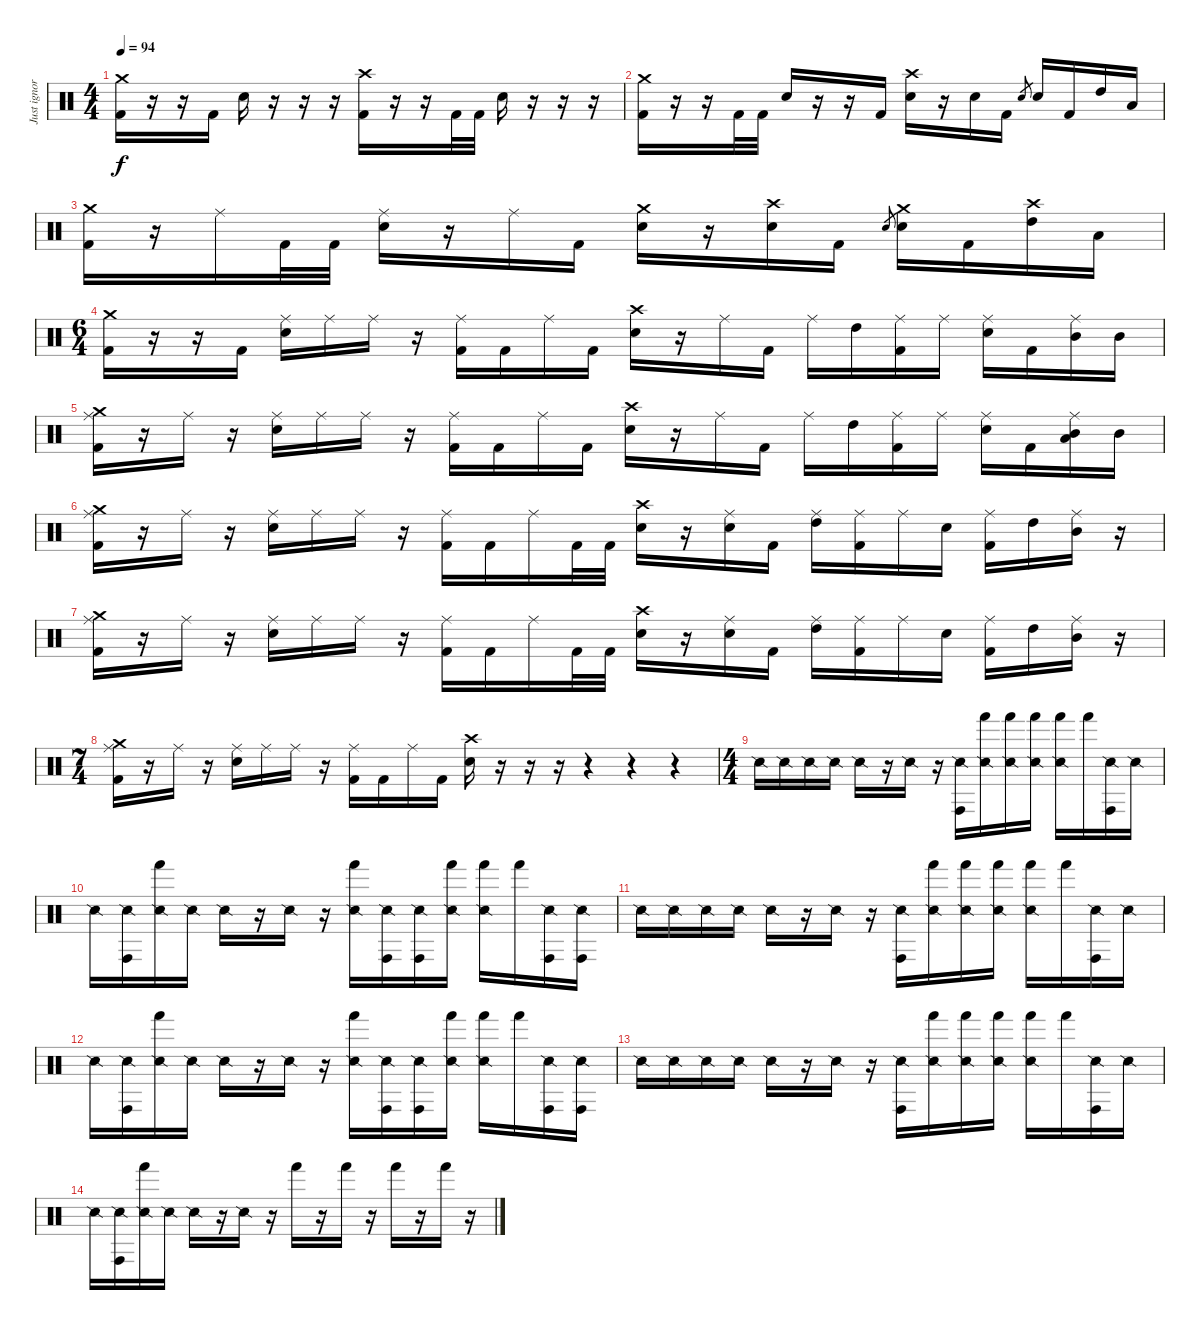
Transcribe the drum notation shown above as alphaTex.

\track ("Just ignore this track" "Just ignor") {instrument percussion}
\staff {score}
\articulation defaults
\ts (4 4)
\tempo 94
\clef neutral
\ks c
("Crash medium (hit)" "Kick (hit) 2").16{dy f} r.16 r.16 "Kick (hit) 2".16 "Electric Snare (hit)".16 r.16 r.16 r.16 ("Crash high (hit)" "Kick (hit) 2").16 r.16 r.16 "Kick (hit) 2".32 "Kick (hit) 2".32 "Electric Snare (hit)".16 r.16 r.16 r.16 |
("Crash medium (hit)" "Kick (hit) 2").16 r.16 r.16 "Kick (hit) 2".32 "Kick (hit) 2".32 "Electric Snare (hit)".16 r.16 r.16 "Kick (hit) 2".16 ("Crash high (hit)" "Electric Snare (hit)").16 r.16 "Electric Snare (hit)".16 "Kick (hit) 2".16 "Electric Snare (hit)".8{gr} "Electric Snare (hit)".16 "Kick (hit) 2".16 "High Tom (hit)".16 "Low Tom (hit)".16 |
("Crash medium (hit)" "Kick (hit) 2").16 r.16 "Ride (middle)".16 "Kick (hit) 2".32 "Kick (hit) 2".32 ("Ride (middle)" "Electric Snare (hit)").16 r.16 "Ride (middle)".16 "Kick (hit) 2".16 ("Crash medium (hit)" "Electric Snare (hit)").16 r.16 ("Crash high (hit)" "Electric Snare (hit)").16 "Kick (hit) 2".16 "Electric Snare (hit)".8{gr} ("Crash medium (hit)" "Electric Snare (hit)").16 "Kick (hit) 2".16 ("Crash high (hit)" "High Tom (hit)").16 "Low Tom (hit)".16 |
\ts (6 4)
("Crash medium (hit)" "Kick (hit) 2").16 r.16 r.16 "Kick (hit) 2".16 ("Ride (middle)" "Electric Snare (hit)").16 "Ride (middle)".16 "Ride (middle)".16 r.16 ("Ride (middle)" "Kick (hit) 2").16 "Kick (hit) 2".16 "Ride (middle)".16 "Kick (hit) 2".16 ("Crash high (hit)" "Electric Snare (hit)").16 r.16 "Ride (middle)".16 "Kick (hit) 2".16 "Ride (middle)".16 "High Tom (hit)".16 ("Ride (middle)" "Kick (hit) 2").16 "Ride (middle)".16 ("Ride (middle)" "Electric Snare (hit)").16 "Kick (hit) 2".16 ("Ride (middle)" "Mid Tom (hit)").16 "Mid Tom (hit)".16 |
("Crash medium (hit)" "Ride (middle)" "Kick (hit) 2").16 r.16 "Ride (middle)".16 r.16 ("Ride (middle)" "Electric Snare (hit)").16 "Ride (middle)".16 "Ride (middle)".16 r.16 ("Ride (middle)" "Kick (hit) 2").16 "Kick (hit) 2".16 "Ride (middle)".16 "Kick (hit) 2".16 ("Crash high (hit)" "Electric Snare (hit)").16 r.16 "Ride (middle)".16 "Kick (hit) 2".16 "Ride (middle)".16 "High Tom (hit)".16 ("Ride (middle)" "Kick (hit) 2").16 "Ride (middle)".16 ("Ride (middle)" "Electric Snare (hit)").16 "Kick (hit) 2".16 ("Ride (middle)" "Low Floor Tom (hit)" "Mid Tom (hit)").16 "Mid Tom (hit)".16 |
("Crash medium (hit)" "Ride (middle)" "Kick (hit) 2").16 r.16 "Ride (middle)".16 r.16 ("Ride (middle)" "Electric Snare (hit)").16 "Ride (middle)".16 "Ride (middle)".16 r.16 ("Ride (middle)" "Kick (hit) 2").16 "Kick (hit) 2".16 "Ride (middle)".16 "Kick (hit) 2".32 "Kick (hit) 2".32 ("Crash high (hit)" "Electric Snare (hit)").16 r.16 ("Ride (middle)" "Electric Snare (hit)").16 "Kick (hit) 2".16 ("Ride (middle)" "High Tom (hit)").16 ("Ride (middle)" "Kick (hit) 2").16 "Ride (middle)".16 "Electric Snare (hit)".16 ("Ride (middle)" "Kick (hit) 2").16 "High Tom (hit)".16 ("Ride (middle)" "Mid Tom (hit)").16 r.16 |
("Crash medium (hit)" "Ride (middle)" "Kick (hit) 2").16 r.16 "Ride (middle)".16 r.16 ("Ride (middle)" "Electric Snare (hit)").16 "Ride (middle)".16 "Ride (middle)".16 r.16 ("Ride (middle)" "Kick (hit) 2").16 "Kick (hit) 2".16 "Ride (middle)".16 "Kick (hit) 2".32 "Kick (hit) 2".32 ("Crash high (hit)" "Electric Snare (hit)").16 r.16 ("Ride (middle)" "Electric Snare (hit)").16 "Kick (hit) 2".16 ("Ride (middle)" "High Tom (hit)").16 ("Ride (middle)" "Kick (hit) 2").16 "Ride (middle)".16 "Electric Snare (hit)".16 ("Ride (middle)" "Kick (hit) 2").16 "High Tom (hit)".16 ("Ride (middle)" "Mid Tom (hit)").16 r.16 |
\ts (7 4)
("Crash medium (hit)" "Ride (middle)" "Kick (hit) 2").16 r.16 "Ride (middle)".16 r.16 ("Ride (middle)" "Electric Snare (hit)").16 "Ride (middle)".16 "Ride (middle)".16 r.16 ("Ride (middle)" "Kick (hit) 2").16 "Kick (hit) 2".16 "Ride (middle)".16 "Kick (hit) 2".16 ("Crash high (hit)" "Electric Snare (hit)").16 r.16 r.16 r.16 r.4 r.4 r.4 |
\ts (4 4)
"Snare (side stick) 2".16 "Snare (side stick) 2".16 "Snare (side stick) 2".16 "Snare (side stick) 2".16 "Snare (side stick) 2".16 r.16 "Snare (side stick) 2".16 r.16 ("Conga high (hit)" "Snare (side stick) 2").16 ("Hand (hit)" "Snare (side stick) 2").16 ("Hand (hit)" "Snare (side stick) 2").16 ("Hand (hit)" "Snare (side stick) 2").16 ("Hand (hit)" "Snare (side stick) 2").16 "Hand (hit)".16 ("Conga high (hit)" "Snare (side stick) 2").16 "Snare (side stick) 2".16 |
"Snare (side stick) 2".16 ("Conga high (hit)" "Snare (side stick) 2").16 ("Hand (hit)" "Snare (side stick) 2").16 "Snare (side stick) 2".16 "Snare (side stick) 2".16 r.16 "Snare (side stick) 2".16 r.16 ("Hand (hit)" "Snare (side stick) 2").16 ("Conga high (hit)" "Snare (side stick) 2").16 ("Conga high (hit)" "Snare (side stick) 2").16 ("Hand (hit)" "Snare (side stick) 2").16 ("Hand (hit)" "Snare (side stick) 2").16 "Hand (hit)".16 ("Conga high (hit)" "Snare (side stick) 2").16 ("Conga high (hit)" "Snare (side stick) 2").16 |
"Snare (side stick) 2".16 "Snare (side stick) 2".16 "Snare (side stick) 2".16 "Snare (side stick) 2".16 "Snare (side stick) 2".16 r.16 "Snare (side stick) 2".16 r.16 ("Conga high (hit)" "Snare (side stick) 2").16 ("Hand (hit)" "Snare (side stick) 2").16 ("Hand (hit)" "Snare (side stick) 2").16 ("Hand (hit)" "Snare (side stick) 2").16 ("Hand (hit)" "Snare (side stick) 2").16 "Hand (hit)".16 ("Conga high (hit)" "Snare (side stick) 2").16 "Snare (side stick) 2".16 |
"Snare (side stick) 2".16 ("Conga high (hit)" "Snare (side stick) 2").16 ("Hand (hit)" "Snare (side stick) 2").16 "Snare (side stick) 2".16 "Snare (side stick) 2".16 r.16 "Snare (side stick) 2".16 r.16 ("Hand (hit)" "Snare (side stick) 2").16 ("Conga high (hit)" "Snare (side stick) 2").16 ("Conga high (hit)" "Snare (side stick) 2").16 ("Hand (hit)" "Snare (side stick) 2").16 ("Hand (hit)" "Snare (side stick) 2").16 "Hand (hit)".16 ("Conga high (hit)" "Snare (side stick) 2").16 ("Conga high (hit)" "Snare (side stick) 2").16 |
"Snare (side stick) 2".16 "Snare (side stick) 2".16 "Snare (side stick) 2".16 "Snare (side stick) 2".16 "Snare (side stick) 2".16 r.16 "Snare (side stick) 2".16 r.16 ("Conga high (hit)" "Snare (side stick) 2").16 ("Hand (hit)" "Snare (side stick) 2").16 ("Hand (hit)" "Snare (side stick) 2").16 ("Hand (hit)" "Snare (side stick) 2").16 ("Hand (hit)" "Snare (side stick) 2").16 "Hand (hit)".16 ("Conga high (hit)" "Snare (side stick) 2").16 "Snare (side stick) 2".16 |
"Snare (side stick) 2".16 ("Conga high (hit)" "Snare (side stick) 2").16 ("Hand (hit)" "Snare (side stick) 2").16 "Snare (side stick) 2".16 "Snare (side stick) 2".16 r.16 "Snare (side stick) 2".16 r.16 "Hand (hit)".16 r.16 "Hand (hit)".16 r.16 "Hand (hit)".16 r.16 "Hand (hit)".16 r.16
